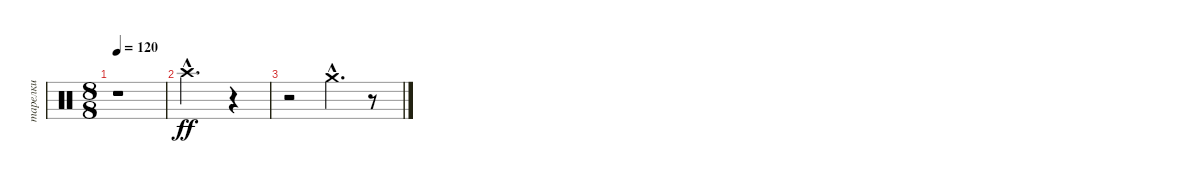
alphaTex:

\track ("тарелки" "тарелки") {instrument percussion}
\staff {score}
\articulation defaults
\ts (8 8)
\tempo 120
\clef neutral
\ks c
r.1{dy f} |
"Crash high (hit)"{hac}.2{d dy ff volume 6} r.4 |
r.2 "Crash medium (hit)"{hac}.4{d volume 3} r.8
